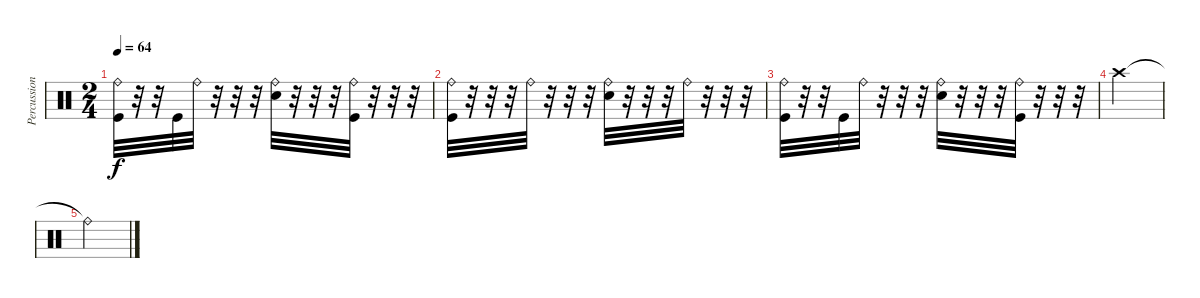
\track ("Percussion" "Percussion") {instrument percussion}
\staff {score}
\articulation defaults
\ts (2 4)
\tempo 64
\clef neutral
\ks c
("Ride (bell)" "Kick (hit)").32{dy f} r.32 r.32 "Kick (hit)".32 "Ride (bell)".32 r.32 r.32 r.32 ("Ride (bell)" "Electric Snare (hit)").32 r.32 r.32 r.32 ("Ride (bell)" "Kick (hit)").32 r.32 r.32 r.32 |
("Ride (bell)" "Kick (hit)").32 r.32 r.32 r.32 "Ride (bell)".32 r.32 r.32 r.32 ("Ride (bell)" "Electric Snare (hit)").32 r.32 r.32 r.32 "Ride (bell)".32 r.32 r.32 r.32 |
("Ride (bell)" "Kick (hit)").32 r.32 r.32 "Kick (hit)".32 "Ride (bell)".32 r.32 r.32 r.32 ("Ride (bell)" "Electric Snare (hit)").32 r.32 r.32 r.32 ("Ride (bell)" "Kick (hit)").32 r.32 r.32 r.32 |
"Crash high (hit)".2 |
"Ride (bell)"{t}.2
